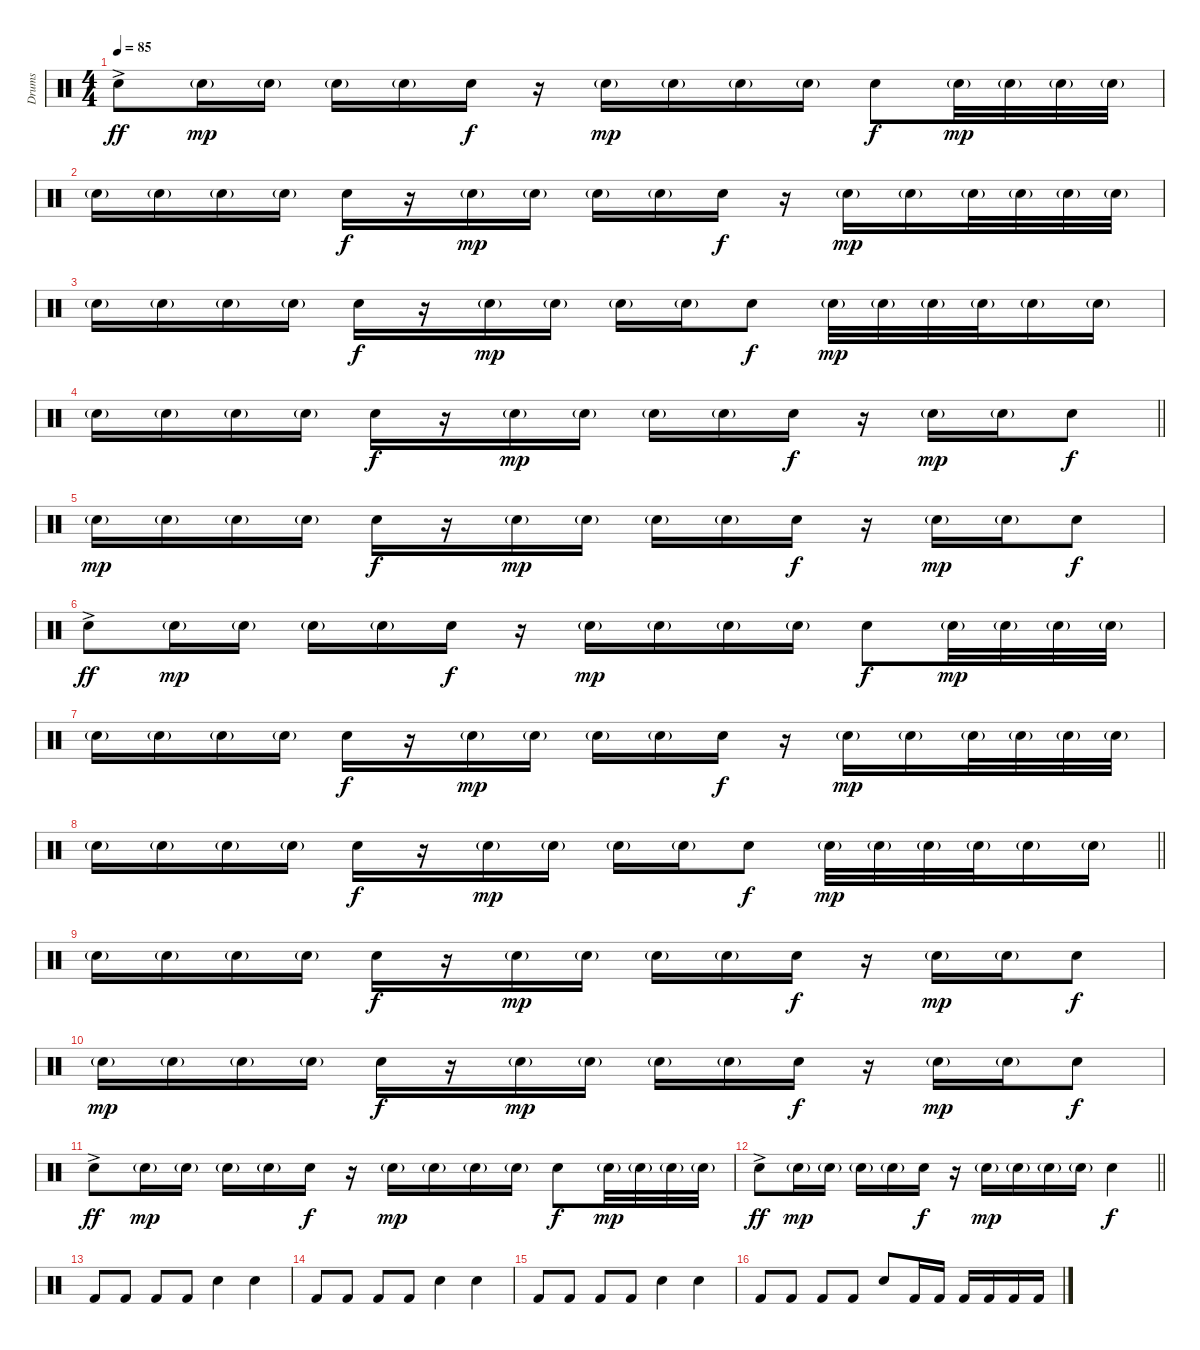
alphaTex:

\track ("Drums" "Drums") {instrument percussion}
\staff {score}
\articulation defaults
\ts (4 4)
\tempo 85
\clef neutral
\ks c "Electric Snare (hit)"{ac}.8{dy ff} "Electric Snare (hit)"{g}.16{dy mp} "Electric Snare (hit)"{g}.16 "Electric Snare (hit)"{g}.16 "Electric Snare (hit)"{g}.16 "Electric Snare (hit)".16{dy f}
r.16 "Electric Snare (hit)"{g}.16{dy mp} "Electric Snare (hit)"{g}.16 "Electric Snare (hit)"{g}.16 "Electric Snare (hit)"{g}.16 "Electric Snare (hit)".8{dy f} "Electric Snare (hit)"{g}.32{dy mp} "Electric Snare (hit)"{g}.32 "Electric Snare (hit)"{g}.32 "Electric Snare (hit)"{g}.32 |
"Electric Snare (hit)"{g}.16 "Electric Snare (hit)"{g}.16 "Electric Snare (hit)"{g}.16 "Electric Snare (hit)"{g}.16 "Electric Snare (hit)".16{dy f} r.16 "Electric Snare (hit)"{g}.16{dy mp} "Electric Snare (hit)"{g}.16 "Electric Snare (hit)"{g}.16 "Electric Snare (hit)"{g}.16 "Electric Snare (hit)".16{dy f} r.16 "Electric Snare (hit)"{g}.16{dy mp} "Electric Snare (hit)"{g}.16 "Electric Snare (hit)"{g}.32 "Electric Snare (hit)"{g}.32 "Electric Snare (hit)"{g}.32 "Electric Snare (hit)"{g}.32 |
"Electric Snare (hit)"{g}.16 "Electric Snare (hit)"{g}.16 "Electric Snare (hit)"{g}.16 "Electric Snare (hit)"{g}.16 "Electric Snare (hit)".16{dy f} r.16 "Electric Snare (hit)"{g}.16{dy mp} "Electric Snare (hit)"{g}.16 "Electric Snare (hit)"{g}.16 "Electric Snare (hit)"{g}.16 "Electric Snare (hit)".8{dy f} "Electric Snare (hit)"{g}.32{dy mp} "Electric Snare (hit)"{g}.32 "Electric Snare (hit)"{g}.32 "Electric Snare (hit)"{g}.32 "Electric Snare (hit)"{g}.16 "Electric Snare (hit)"{g}.16 |
\barLineRight lightlight "Electric Snare (hit)"{g}.16 "Electric Snare (hit)"{g}.16 "Electric Snare (hit)"{g}.16 "Electric Snare (hit)"{g}.16 "Electric Snare (hit)".16{dy f}
r.16 "Electric Snare (hit)"{g}.16{dy mp} "Electric Snare (hit)"{g}.16 "Electric Snare (hit)"{g}.16 "Electric Snare (hit)"{g}.16 "Electric Snare (hit)".16{dy f} r.16 "Electric Snare (hit)"{g}.16{dy mp} "Electric Snare (hit)"{g}.16 "Electric Snare (hit)".8{dy f} |
"Electric Snare (hit)"{g}.16{dy mp} "Electric Snare (hit)"{g}.16 "Electric Snare (hit)"{g}.16 "Electric Snare (hit)"{g}.16 "Electric Snare (hit)".16{dy f} r.16 "Electric Snare (hit)"{g}.16{dy mp} "Electric Snare (hit)"{g}.16 "Electric Snare (hit)"{g}.16 "Electric Snare (hit)"{g}.16 "Electric Snare (hit)".16{dy f} r.16 "Electric Snare (hit)"{g}.16{dy mp} "Electric Snare (hit)"{g}.16 "Electric Snare (hit)".8{dy f} |
"Electric Snare (hit)"{ac}.8{dy ff} "Electric Snare (hit)"{g}.16{dy mp} "Electric Snare (hit)"{g}.16 "Electric Snare (hit)"{g}.16 "Electric Snare (hit)"{g}.16 "Electric Snare (hit)".16{dy f} r.16 "Electric Snare (hit)"{g}.16{dy mp} "Electric Snare (hit)"{g}.16 "Electric Snare (hit)"{g}.16 "Electric Snare (hit)"{g}.16 "Electric Snare (hit)".8{dy f} "Electric Snare (hit)"{g}.32{dy mp} "Electric Snare (hit)"{g}.32 "Electric Snare (hit)"{g}.32 "Electric Snare (hit)"{g}.32 |
"Electric Snare (hit)"{g}.16 "Electric Snare (hit)"{g}.16 "Electric Snare (hit)"{g}.16 "Electric Snare (hit)"{g}.16 "Electric Snare (hit)".16{dy f} r.16 "Electric Snare (hit)"{g}.16{dy mp} "Electric Snare (hit)"{g}.16 "Electric Snare (hit)"{g}.16 "Electric Snare (hit)"{g}.16 "Electric Snare (hit)".16{dy f} r.16 "Electric Snare (hit)"{g}.16{dy mp} "Electric Snare (hit)"{g}.16 "Electric Snare (hit)"{g}.32 "Electric Snare (hit)"{g}.32 "Electric Snare (hit)"{g}.32 "Electric Snare (hit)"{g}.32 |
\barLineRight lightlight "Electric Snare (hit)"{g}.16 "Electric Snare (hit)"{g}.16 "Electric Snare (hit)"{g}.16 "Electric Snare (hit)"{g}.16 "Electric Snare (hit)".16{dy f}
r.16 "Electric Snare (hit)"{g}.16{dy mp} "Electric Snare (hit)"{g}.16 "Electric Snare (hit)"{g}.16 "Electric Snare (hit)"{g}.16 "Electric Snare (hit)".8{dy f} "Electric Snare (hit)"{g}.32{dy mp} "Electric Snare (hit)"{g}.32 "Electric Snare (hit)"{g}.32 "Electric Snare (hit)"{g}.32 "Electric Snare (hit)"{g}.16 "Electric Snare (hit)"{g}.16 |
"Electric Snare (hit)"{g}.16 "Electric Snare (hit)"{g}.16 "Electric Snare (hit)"{g}.16 "Electric Snare (hit)"{g}.16 "Electric Snare (hit)".16{dy f} r.16 "Electric Snare (hit)"{g}.16{dy mp} "Electric Snare (hit)"{g}.16 "Electric Snare (hit)"{g}.16 "Electric Snare (hit)"{g}.16 "Electric Snare (hit)".16{dy f} r.16 "Electric Snare (hit)"{g}.16{dy mp} "Electric Snare (hit)"{g}.16 "Electric Snare (hit)".8{dy f} |
"Electric Snare (hit)"{g}.16{dy mp} "Electric Snare (hit)"{g}.16 "Electric Snare (hit)"{g}.16 "Electric Snare (hit)"{g}.16 "Electric Snare (hit)".16{dy f} r.16 "Electric Snare (hit)"{g}.16{dy mp} "Electric Snare (hit)"{g}.16 "Electric Snare (hit)"{g}.16 "Electric Snare (hit)"{g}.16 "Electric Snare (hit)".16{dy f} r.16 "Electric Snare (hit)"{g}.16{dy mp} "Electric Snare (hit)"{g}.16 "Electric Snare (hit)".8{dy f} |
"Electric Snare (hit)"{ac}.8{dy ff} "Electric Snare (hit)"{g}.16{dy mp} "Electric Snare (hit)"{g}.16 "Electric Snare (hit)"{g}.16 "Electric Snare (hit)"{g}.16 "Electric Snare (hit)".16{dy f} r.16 "Electric Snare (hit)"{g}.16{dy mp} "Electric Snare (hit)"{g}.16 "Electric Snare (hit)"{g}.16 "Electric Snare (hit)"{g}.16 "Electric Snare (hit)".8{dy f} "Electric Snare (hit)"{g}.32{dy mp} "Electric Snare (hit)"{g}.32 "Electric Snare (hit)"{g}.32 "Electric Snare (hit)"{g}.32 |
\barLineRight lightlight "Electric Snare (hit)"{ac}.8{dy ff} "Electric Snare (hit)"{g}.16{dy mp} "Electric Snare (hit)"{g}.16 "Electric Snare (hit)"{g}.16 "Electric Snare (hit)"{g}.16 "Electric Snare (hit)".16{dy f}
r.16 "Electric Snare (hit)"{g}.16{dy mp} "Electric Snare (hit)"{g}.16 "Electric Snare (hit)"{g}.16 "Electric Snare (hit)"{g}.16 "Electric Snare (hit)".4{dy f} |
"Kick (hit) 2".8 "Kick (hit) 2".8 "Kick (hit) 2".8 "Kick (hit) 2".8 "Snare (hit) 2".4 "Snare (hit) 2".4 |
"Kick (hit) 2".8 "Kick (hit) 2".8 "Kick (hit) 2".8 "Kick (hit) 2".8 "Snare (hit) 2".4 "Snare (hit) 2".4 |
"Kick (hit) 2".8 "Kick (hit) 2".8 "Kick (hit) 2".8 "Kick (hit) 2".8 "Snare (hit) 2".4 "Snare (hit) 2".4 |
"Kick (hit) 2".8 "Kick (hit) 2".8 "Kick (hit) 2".8 "Kick (hit) 2".8 "Snare (hit) 2".8 "Kick (hit) 2".16 "Kick (hit) 2".16 "Kick (hit) 2".16 "Kick (hit) 2".16 "Kick (hit) 2".16 "Kick (hit) 2".16
